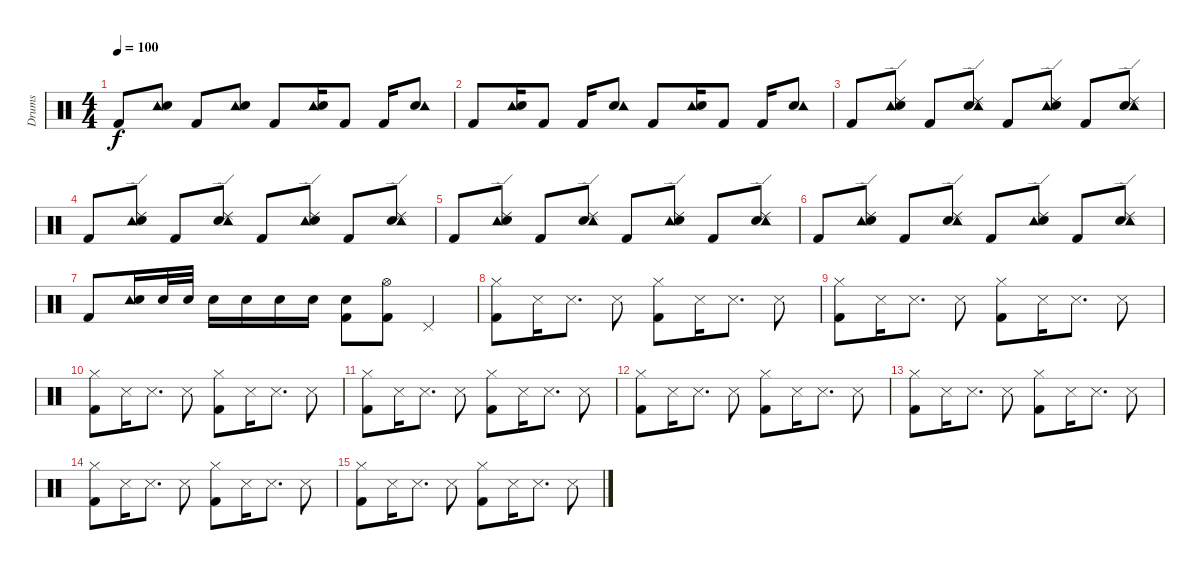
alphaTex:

\track ("Drums" "Drums") {instrument percussion}
\staff {score}
\articulation defaults
\ts (4 4)
\tempo 100
\clef neutral
\ks c "Kick (hit) 2".8{dy f}
("Tambourine (hit)" "Electric Snare (hit)").8 "Kick (hit) 2".8 ("Tambourine (hit)" "Electric Snare (hit)").8 "Kick (hit) 2".8 ("Tambourine (hit)" "Electric Snare (hit)").16 "Kick (hit) 2".8 "Kick (hit) 2".16 ("Electric Snare (hit)" "Tambourine (hit)").8 |
"Kick (hit) 2".8 ("Tambourine (hit)" "Electric Snare (hit)").16 "Kick (hit) 2".8 "Kick (hit) 2".16 ("Electric Snare (hit)" "Tambourine (hit)").8 "Kick (hit) 2".8 ("Tambourine (hit)" "Electric Snare (hit)").16 "Kick (hit) 2".8 "Kick (hit) 2".16 ("Electric Snare (hit)" "Tambourine (hit)").8 |
"Kick (hit) 2".8 ("Tambourine (hit)" "Electric Snare (hit)" "Ride (edge) 2").8 "Kick (hit) 2".8 ("Electric Snare (hit)" "Tambourine (hit)" "Ride (edge) 2").8 "Kick (hit) 2".8 ("Tambourine (hit)" "Electric Snare (hit)" "Ride (edge) 2").8 "Kick (hit) 2".8 ("Electric Snare (hit)" "Tambourine (hit)" "Ride (edge) 2").8 |
"Kick (hit) 2".8 ("Tambourine (hit)" "Electric Snare (hit)" "Ride (edge) 2").8 "Kick (hit) 2".8 ("Electric Snare (hit)" "Tambourine (hit)" "Ride (edge) 2").8 "Kick (hit) 2".8 ("Tambourine (hit)" "Electric Snare (hit)" "Ride (edge) 2").8 "Kick (hit) 2".8 ("Electric Snare (hit)" "Tambourine (hit)" "Ride (edge) 2").8 |
"Kick (hit) 2".8 ("Tambourine (hit)" "Electric Snare (hit)" "Ride (edge) 2").8 "Kick (hit) 2".8 ("Electric Snare (hit)" "Tambourine (hit)" "Ride (edge) 2").8 "Kick (hit) 2".8 ("Tambourine (hit)" "Electric Snare (hit)" "Ride (edge) 2").8 "Kick (hit) 2".8 ("Electric Snare (hit)" "Tambourine (hit)" "Ride (edge) 2").8 |
"Kick (hit) 2".8 ("Tambourine (hit)" "Electric Snare (hit)" "Ride (edge) 2").8 "Kick (hit) 2".8 ("Electric Snare (hit)" "Tambourine (hit)" "Ride (edge) 2").8 "Kick (hit) 2".8 ("Tambourine (hit)" "Electric Snare (hit)" "Ride (edge) 2").8 "Kick (hit) 2".8 ("Electric Snare (hit)" "Tambourine (hit)" "Ride (edge) 2").8 |
"Kick (hit) 2".8 ("Tambourine (hit)" "Electric Snare (hit)").16 "Electric Snare (hit)".32 "Electric Snare (hit)".32 "Electric Snare (hit)".16 "Electric Snare (hit)".16 "Electric Snare (hit)".16 "Electric Snare (hit)".16 ("Kick (hit) 2" "Electric Snare (hit)").8 ("Kick (hit) 2" "Hi-Hat (open)").8 "Pedal Hi-Hat (hit)".4 |
("Hi-Hat (closed)" "Kick (hit) 2").8 "Snare (side stick) 3".16 "Snare (side stick) 3".8{d} "Snare (side stick) 3".8 ("Hi-Hat (closed)" "Kick (hit) 2").8 "Snare (side stick) 3".16 "Snare (side stick) 3".8{d} "Snare (side stick) 3".8 |
("Hi-Hat (closed)" "Kick (hit) 2").8 "Snare (side stick) 3".16 "Snare (side stick) 3".8{d} "Snare (side stick) 3".8 ("Hi-Hat (closed)" "Kick (hit) 2").8 "Snare (side stick) 3".16 "Snare (side stick) 3".8{d} "Snare (side stick) 3".8 |
("Hi-Hat (closed)" "Kick (hit) 2").8 "Snare (side stick) 3".16 "Snare (side stick) 3".8{d} "Snare (side stick) 3".8 ("Hi-Hat (closed)" "Kick (hit) 2").8 "Snare (side stick) 3".16 "Snare (side stick) 3".8{d} "Snare (side stick) 3".8 |
("Hi-Hat (closed)" "Kick (hit) 2").8 "Snare (side stick) 3".16 "Snare (side stick) 3".8{d} "Snare (side stick) 3".8 ("Hi-Hat (closed)" "Kick (hit) 2").8 "Snare (side stick) 3".16 "Snare (side stick) 3".8{d} "Snare (side stick) 3".8 |
("Hi-Hat (closed)" "Kick (hit) 2").8 "Snare (side stick) 3".16 "Snare (side stick) 3".8{d} "Snare (side stick) 3".8 ("Hi-Hat (closed)" "Kick (hit) 2").8 "Snare (side stick) 3".16 "Snare (side stick) 3".8{d} "Snare (side stick) 3".8 |
("Hi-Hat (closed)" "Kick (hit) 2").8 "Snare (side stick) 3".16 "Snare (side stick) 3".8{d} "Snare (side stick) 3".8 ("Hi-Hat (closed)" "Kick (hit) 2").8 "Snare (side stick) 3".16 "Snare (side stick) 3".8{d} "Snare (side stick) 3".8 |
("Hi-Hat (closed)" "Kick (hit) 2").8 "Snare (side stick) 3".16 "Snare (side stick) 3".8{d} "Snare (side stick) 3".8 ("Hi-Hat (closed)" "Kick (hit) 2").8 "Snare (side stick) 3".16 "Snare (side stick) 3".8{d} "Snare (side stick) 3".8 |
("Hi-Hat (closed)" "Kick (hit) 2").8 "Snare (side stick) 3".16 "Snare (side stick) 3".8{d} "Snare (side stick) 3".8 ("Hi-Hat (closed)" "Kick (hit) 2").8 "Snare (side stick) 3".16 "Snare (side stick) 3".8{d} "Snare (side stick) 3".8
